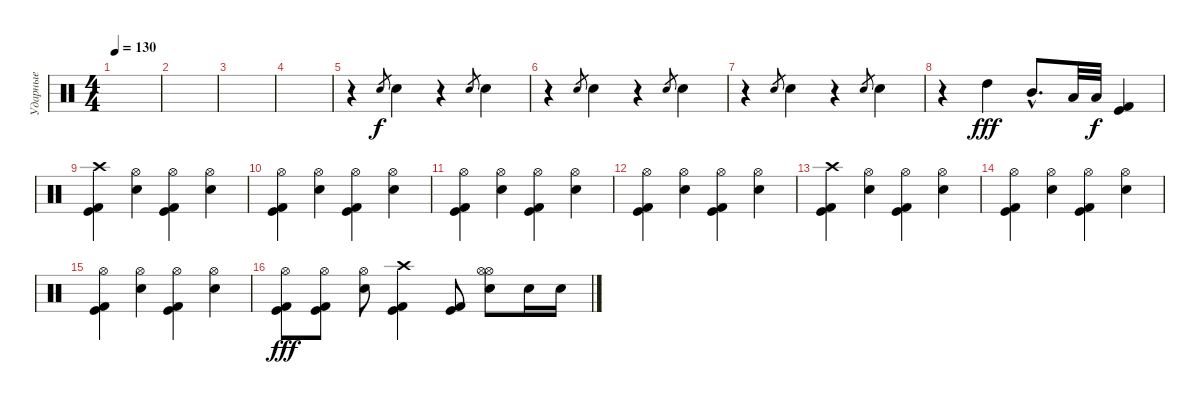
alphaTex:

\track ("Ударные" "Ударные") {instrument percussion}
\staff {score}
\articulation defaults
\ts (4 4)
\tempo 130
\clef neutral
\ks c
|
|
|
|
r.4 "Electric Snare (hit)".8{gr} "Electric Snare (hit)".4 r.4 "Electric Snare (hit)".8{gr} "Electric Snare (hit)".4 |
r.4 "Electric Snare (hit)".8{gr} "Electric Snare (hit)".4 r.4 "Electric Snare (hit)".8{gr} "Electric Snare (hit)".4 |
r.4 "Electric Snare (hit)".8{gr} "Electric Snare (hit)".4 r.4 "Electric Snare (hit)".8{gr} "Electric Snare (hit)".4 |
r.4 "High Tom (hit)".4{dy fff} "Mid Tom (hit)"{hac}.8{d} "Low Tom (hit)".32 "Low Tom (hit)".32{dy f} ("Kick (hit) 2" "Kick (hit)").4 |
("Crash high (hit)" "Kick (hit) 2" "Kick (hit)").4 ("Hi-Hat (open)" "Electric Snare (hit)").4 ("Hi-Hat (open)" "Kick (hit) 2" "Kick (hit)").4 ("Hi-Hat (open)" "Electric Snare (hit)").4 |
("Hi-Hat (open)" "Kick (hit) 2" "Kick (hit)").4 ("Hi-Hat (open)" "Electric Snare (hit)").4 ("Hi-Hat (open)" "Kick (hit) 2" "Kick (hit)").4 ("Hi-Hat (open)" "Electric Snare (hit)").4 |
("Hi-Hat (open)" "Kick (hit) 2" "Kick (hit)").4 ("Hi-Hat (open)" "Electric Snare (hit)").4 ("Hi-Hat (open)" "Kick (hit) 2" "Kick (hit)").4 ("Hi-Hat (open)" "Electric Snare (hit)").4 |
("Hi-Hat (open)" "Kick (hit) 2" "Kick (hit)").4 ("Hi-Hat (open)" "Electric Snare (hit)").4 ("Hi-Hat (open)" "Kick (hit) 2" "Kick (hit)").4 ("Hi-Hat (open)" "Electric Snare (hit)").4 |
("Crash high (hit)" "Kick (hit) 2" "Kick (hit)").4 ("Hi-Hat (open)" "Electric Snare (hit)").4 ("Hi-Hat (open)" "Kick (hit) 2" "Kick (hit)").4 ("Hi-Hat (open)" "Electric Snare (hit)").4 |
("Hi-Hat (open)" "Kick (hit) 2" "Kick (hit)").4 ("Hi-Hat (open)" "Electric Snare (hit)").4 ("Hi-Hat (open)" "Kick (hit) 2" "Kick (hit)").4 ("Hi-Hat (open)" "Electric Snare (hit)").4 |
("Hi-Hat (open)" "Kick (hit) 2" "Kick (hit)").4 ("Hi-Hat (open)" "Electric Snare (hit)").4 ("Hi-Hat (open)" "Kick (hit) 2" "Kick (hit)").4 ("Hi-Hat (open)" "Electric Snare (hit)").4 |
("Hi-Hat (open)" "Kick (hit) 2" "Kick (hit)").8{dy fff} ("Hi-Hat (open)" "Kick (hit) 2" "Kick (hit)").8 ("Hi-Hat (open)" "Electric Snare (hit)").8 ("Crash high (hit)" "Kick (hit) 2" "Kick (hit)").4 ("Kick (hit) 2" "Kick (hit)").8 ("Hi-Hat (open)" "Hi-Hat (open)" "Electric Snare (hit)").8 "Electric Snare (hit)".16 "Electric Snare (hit)".16
